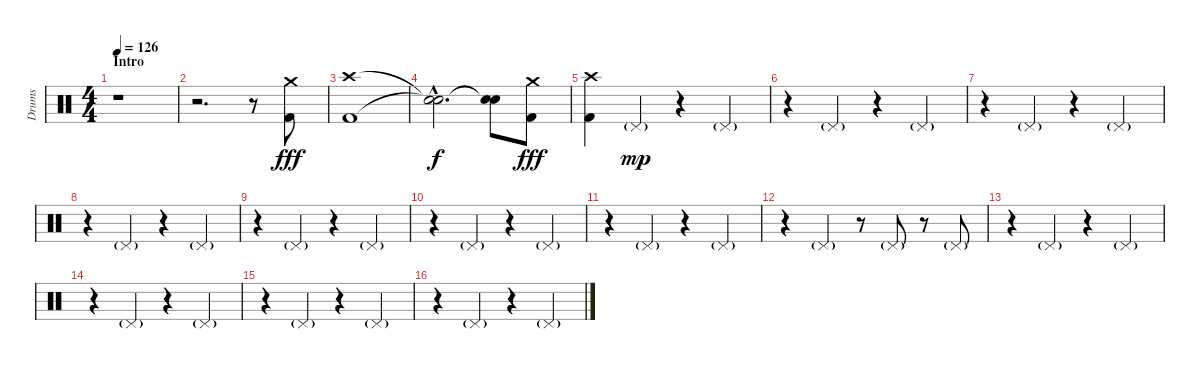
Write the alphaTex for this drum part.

\track ("Drums" "Drums") {instrument percussion}
\staff {score}
\articulation defaults
\ts (4 4)
\section ("" "Intro")
\tempo 126
\clef neutral
\ks c
r.1{dy fff} |
r.2{d} r.8 ("Crash medium (hit)" "Kick (hit) 2").8 |
("Crash high (hit)" "Kick (hit) 2").1 |
("Snare (hit)"{hac t} "Snare (hit)"{hac t}).2{d dy f} ("Snare (hit)"{t} "Snare (hit)"{t}).8 ("Crash medium (hit)" "Kick (hit) 2").8{dy fff} |
("Crash high (hit)" "Kick (hit) 2").4 "Pedal Hi-Hat (hit)"{g}.4{dy mp} r.4 "Pedal Hi-Hat (hit)"{g}.4 |
r.4 "Pedal Hi-Hat (hit)"{g}.4 r.4 "Pedal Hi-Hat (hit)"{g}.4 |
r.4 "Pedal Hi-Hat (hit)"{g}.4 r.4 "Pedal Hi-Hat (hit)"{g}.4 |
r.4 "Pedal Hi-Hat (hit)"{g}.4 r.4 "Pedal Hi-Hat (hit)"{g}.4 |
r.4 "Pedal Hi-Hat (hit)"{g}.4 r.4 "Pedal Hi-Hat (hit)"{g}.4 |
r.4 "Pedal Hi-Hat (hit)"{g}.4 r.4 "Pedal Hi-Hat (hit)"{g}.4 |
r.4 "Pedal Hi-Hat (hit)"{g}.4 r.4 "Pedal Hi-Hat (hit)"{g}.4 |
r.4 "Pedal Hi-Hat (hit)"{g}.4 r.8 "Pedal Hi-Hat (hit)"{g}.8 r.8 "Pedal Hi-Hat (hit)"{g}.8 |
r.4 "Pedal Hi-Hat (hit)"{g}.4 r.4 "Pedal Hi-Hat (hit)"{g}.4 |
r.4 "Pedal Hi-Hat (hit)"{g}.4 r.4 "Pedal Hi-Hat (hit)"{g}.4 |
r.4 "Pedal Hi-Hat (hit)"{g}.4 r.4 "Pedal Hi-Hat (hit)"{g}.4 |
r.4 "Pedal Hi-Hat (hit)"{g}.4 r.4 "Pedal Hi-Hat (hit)"{g}.4
